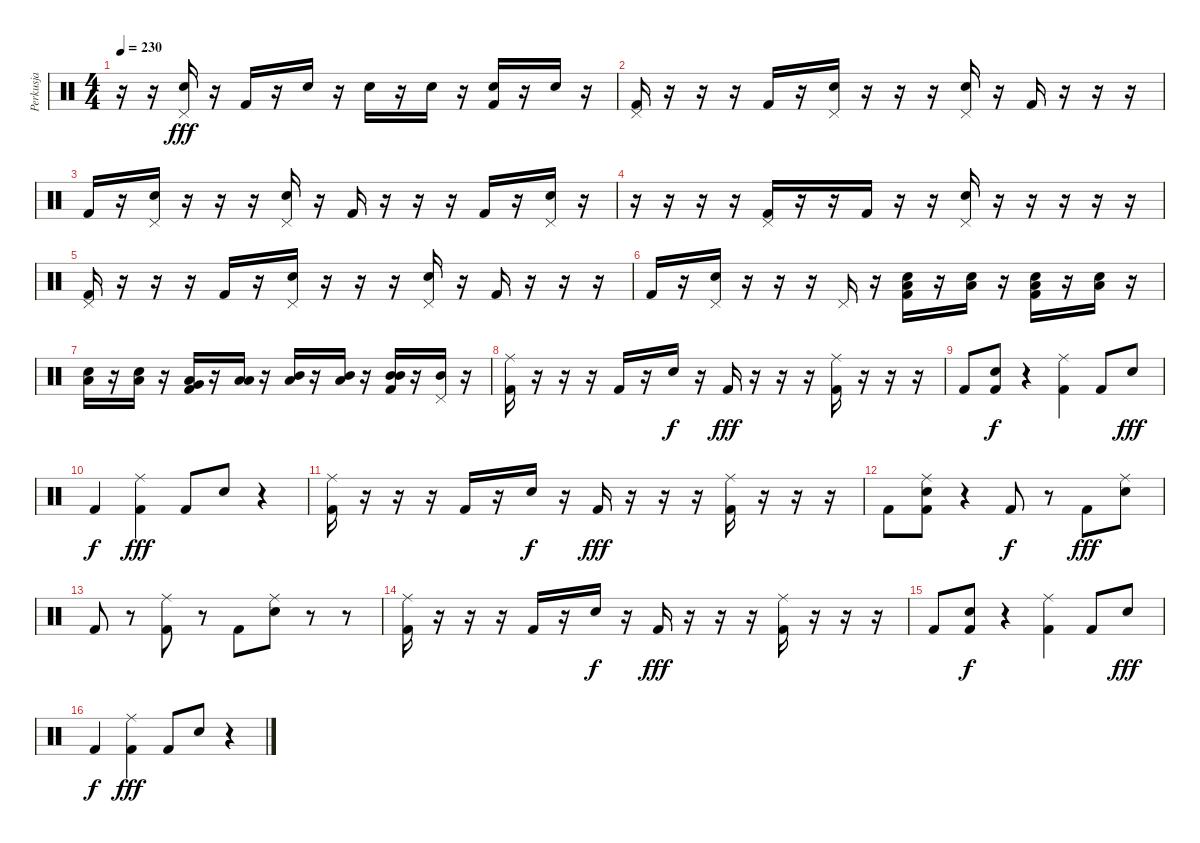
\track ("Perkusja" "Perkusja") {instrument percussion}
\staff {score}
\articulation defaults
\ts (4 4)
\tempo 230
\clef neutral
\ks c
r.16{dy fff} r.16 ("Snare (hit) 2" "Pedal Hi-Hat (hit)").16 r.16 "Kick (hit) 2".16 r.16 "Snare (hit) 2".16 r.16 "Snare (hit) 2".16 r.16 "Snare (hit) 2".16 r.16 ("Snare (hit) 2" "Kick (hit) 2").16 r.16 "Snare (hit) 2".16 r.16 |
("Pedal Hi-Hat (hit)" "Kick (hit) 2").16 r.16 r.16 r.16 "Kick (hit) 2".16 r.16 ("Snare (hit) 2" "Pedal Hi-Hat (hit)").16 r.16 r.16 r.16 ("Snare (hit) 2" "Pedal Hi-Hat (hit)").16 r.16 "Kick (hit) 2".16 r.16 r.16 r.16 |
"Kick (hit) 2".16 r.16 ("Snare (hit) 2" "Pedal Hi-Hat (hit)").16 r.16 r.16 r.16 ("Snare (hit) 2" "Pedal Hi-Hat (hit)").16 r.16 "Kick (hit) 2".16 r.16 r.16 r.16 "Kick (hit) 2".16 r.16 ("Snare (hit) 2" "Pedal Hi-Hat (hit)").16 r.16 |
r.16 r.16 r.16 r.16 ("Pedal Hi-Hat (hit)" "Kick (hit) 2").16 r.16 r.16 "Kick (hit) 2".16 r.16 r.16 ("Snare (hit) 2" "Pedal Hi-Hat (hit)").16 r.16 r.16 r.16 r.16 r.16 |
("Pedal Hi-Hat (hit)" "Kick (hit) 2").16 r.16 r.16 r.16 "Kick (hit) 2".16 r.16 ("Snare (hit) 2" "Pedal Hi-Hat (hit)").16 r.16 r.16 r.16 ("Snare (hit) 2" "Pedal Hi-Hat (hit)").16 r.16 "Kick (hit) 2".16 r.16 r.16 r.16 |
"Kick (hit) 2".16 r.16 ("Snare (hit) 2" "Pedal Hi-Hat (hit)").16 r.16 r.16 r.16 "Pedal Hi-Hat (hit)".16 r.16 ("Snare (hit) 2" "Low Tom (hit)" "Kick (hit) 2").16 r.16 ("Snare (hit) 2" "Low Tom (hit)").16 r.16 ("Snare (hit) 2" "Low Tom (hit)" "Kick (hit) 2").16 r.16 ("Snare (hit) 2" "Low Tom (hit)").16 r.16 |
("Snare (hit) 2" "Low Tom (hit)").16 r.16 ("Snare (hit) 2" "Low Tom (hit)").16 r.16 ("Low Tom (hit)" "Very Low Tom (hit)" "Kick (hit) 2").16 r.16 ("Low Tom (hit)" "Low Tom (hit)").16 r.16 ("Low Tom (hit)" "Mid Tom (hit)").16 r.16 ("Mid Tom (hit)" "Low Tom (hit)").16 r.16 ("Mid Tom (hit)" "Mid Tom (hit)" "Kick (hit) 2").16 r.16 ("Mid Tom (hit)" "Pedal Hi-Hat (hit)").16 r.16 |
("Ride (middle)" "Kick (hit) 2").16 r.16 r.16 r.16 "Kick (hit) 2".16 r.16 "Snare (hit) 2".16{dy f} r.16 "Kick (hit) 2".16{dy fff} r.16 r.16 r.16 ("Ride (middle)" "Kick (hit) 2").16 r.16 r.16 r.16 |
"Kick (hit) 2".8 ("Snare (hit) 2" "Kick (hit) 2").8{dy f} r.4 ("Ride (middle)" "Kick (hit) 2").4 "Kick (hit) 2".8 "Snare (hit) 2".8{dy fff} |
"Kick (hit) 2".4{dy f} ("Ride (middle)" "Kick (hit) 2").4{dy fff} "Kick (hit) 2".8 "Snare (hit) 2".8 r.4 |
("Ride (middle)" "Kick (hit) 2").16 r.16 r.16 r.16 "Kick (hit) 2".16 r.16 "Snare (hit) 2".16{dy f} r.16 "Kick (hit) 2".16{dy fff} r.16 r.16 r.16 ("Ride (middle)" "Kick (hit) 2").16 r.16 r.16 r.16 |
"Kick (hit) 2".8 ("Snare (hit) 2" "Ride (middle)" "Kick (hit) 2").8 r.4 "Kick (hit) 2".8{dy f} r.8 "Kick (hit) 2".8{dy fff} ("Snare (hit) 2" "Ride (middle)").8 |
"Kick (hit) 2".8 r.8 ("Ride (middle)" "Kick (hit) 2").8 r.8 "Kick (hit) 2".8 ("Snare (hit) 2" "Ride (middle)").8 r.8 r.8 |
("Ride (middle)" "Kick (hit) 2").16 r.16 r.16 r.16 "Kick (hit) 2".16 r.16 "Snare (hit) 2".16{dy f} r.16 "Kick (hit) 2".16{dy fff} r.16 r.16 r.16 ("Ride (middle)" "Kick (hit) 2").16 r.16 r.16 r.16 |
"Kick (hit) 2".8 ("Snare (hit) 2" "Kick (hit) 2").8{dy f} r.4 ("Ride (middle)" "Kick (hit) 2").4 "Kick (hit) 2".8 "Snare (hit) 2".8{dy fff} |
"Kick (hit) 2".4{dy f} ("Ride (middle)" "Kick (hit) 2").4{dy fff} "Kick (hit) 2".8 "Snare (hit) 2".8 r.4
